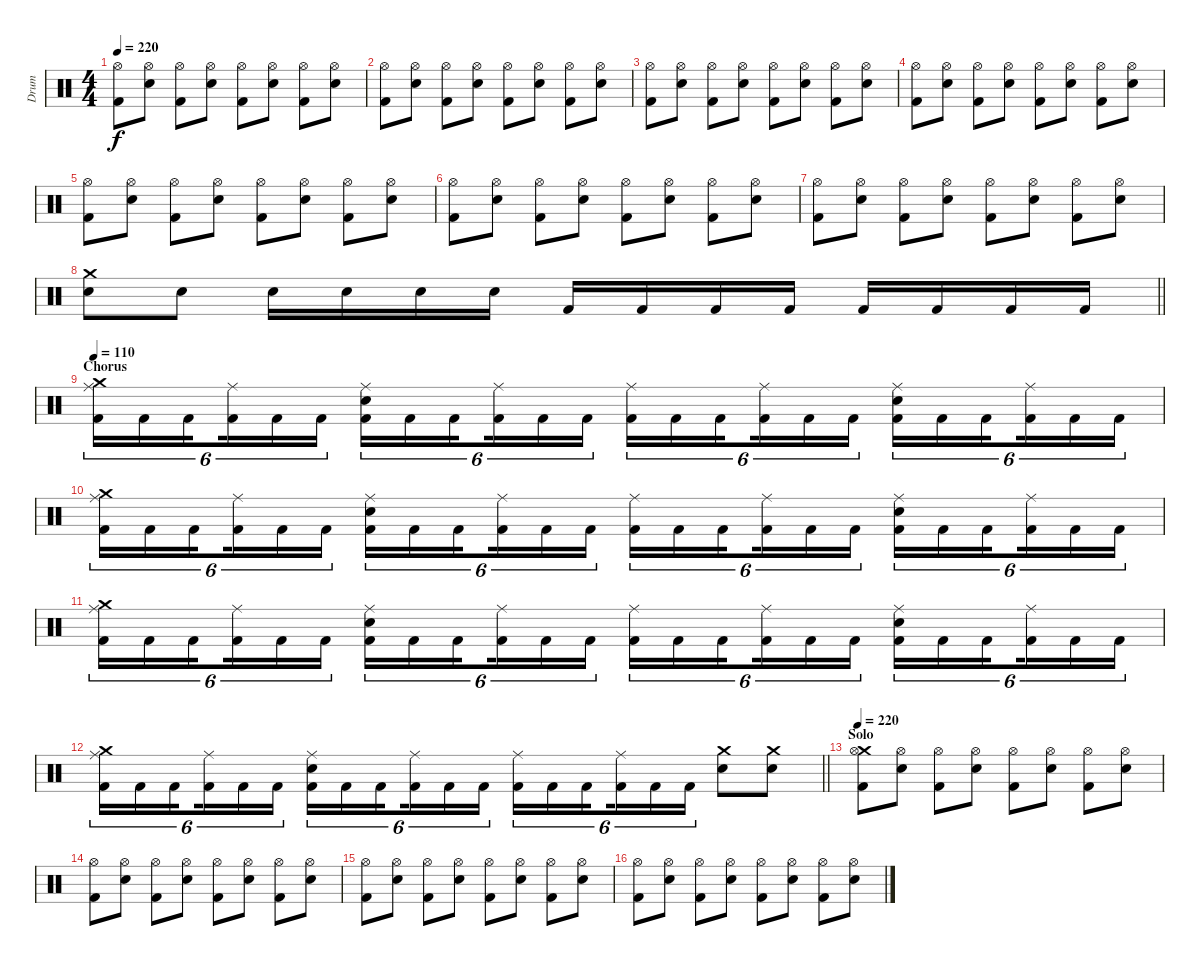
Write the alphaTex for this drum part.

\track ("Drum" "Drum") {instrument percussion}
\staff {score}
\articulation defaults
\ts (4 4)
\tempo 220
\clef neutral
\ks c
("Hi-Hat (open)" "Kick (hit) 2").8{dy f} ("Hi-Hat (open)" "Electric Snare (hit)").8 ("Hi-Hat (open)" "Kick (hit) 2").8 ("Hi-Hat (open)" "Electric Snare (hit)").8 ("Hi-Hat (open)" "Kick (hit) 2").8 ("Hi-Hat (open)" "Electric Snare (hit)").8 ("Hi-Hat (open)" "Kick (hit) 2").8 ("Hi-Hat (open)" "Electric Snare (hit)").8 |
("Hi-Hat (open)" "Kick (hit) 2").8 ("Hi-Hat (open)" "Electric Snare (hit)").8 ("Hi-Hat (open)" "Kick (hit) 2").8 ("Hi-Hat (open)" "Electric Snare (hit)").8 ("Hi-Hat (open)" "Kick (hit) 2").8 ("Hi-Hat (open)" "Electric Snare (hit)").8 ("Hi-Hat (open)" "Kick (hit) 2").8 ("Hi-Hat (open)" "Electric Snare (hit)").8 |
("Hi-Hat (open)" "Kick (hit) 2").8 ("Hi-Hat (open)" "Electric Snare (hit)").8 ("Hi-Hat (open)" "Kick (hit) 2").8 ("Hi-Hat (open)" "Electric Snare (hit)").8 ("Hi-Hat (open)" "Kick (hit) 2").8 ("Hi-Hat (open)" "Electric Snare (hit)").8 ("Hi-Hat (open)" "Kick (hit) 2").8 ("Hi-Hat (open)" "Electric Snare (hit)").8 |
("Hi-Hat (open)" "Kick (hit) 2").8 ("Hi-Hat (open)" "Electric Snare (hit)").8 ("Hi-Hat (open)" "Kick (hit) 2").8 ("Hi-Hat (open)" "Electric Snare (hit)").8 ("Hi-Hat (open)" "Kick (hit) 2").8 ("Hi-Hat (open)" "Electric Snare (hit)").8 ("Hi-Hat (open)" "Kick (hit) 2").8 ("Hi-Hat (open)" "Electric Snare (hit)").8 |
("Hi-Hat (open)" "Kick (hit) 2").8 ("Hi-Hat (open)" "Electric Snare (hit)").8 ("Hi-Hat (open)" "Kick (hit) 2").8 ("Hi-Hat (open)" "Electric Snare (hit)").8 ("Hi-Hat (open)" "Kick (hit) 2").8 ("Hi-Hat (open)" "Electric Snare (hit)").8 ("Hi-Hat (open)" "Kick (hit) 2").8 ("Hi-Hat (open)" "Electric Snare (hit)").8 |
("Hi-Hat (open)" "Kick (hit) 2").8 ("Hi-Hat (open)" "Electric Snare (hit)").8 ("Hi-Hat (open)" "Kick (hit) 2").8 ("Hi-Hat (open)" "Electric Snare (hit)").8 ("Hi-Hat (open)" "Kick (hit) 2").8 ("Hi-Hat (open)" "Electric Snare (hit)").8 ("Hi-Hat (open)" "Kick (hit) 2").8 ("Hi-Hat (open)" "Electric Snare (hit)").8 |
("Hi-Hat (open)" "Kick (hit) 2").8 ("Hi-Hat (open)" "Electric Snare (hit)").8 ("Hi-Hat (open)" "Kick (hit) 2").8 ("Hi-Hat (open)" "Electric Snare (hit)").8 ("Hi-Hat (open)" "Kick (hit) 2").8 ("Hi-Hat (open)" "Electric Snare (hit)").8 ("Hi-Hat (open)" "Kick (hit) 2").8 ("Hi-Hat (open)" "Electric Snare (hit)").8 |
\barLineRight lightlight
("Crash medium (hit)" "Electric Snare (hit)").8 "Electric Snare (hit)".8 "Electric Snare (hit)".16 "Electric Snare (hit)".16 "Electric Snare (hit)".16 "Electric Snare (hit)".16 "Kick (hit) 2".16 "Kick (hit) 2".16 "Kick (hit) 2".16 "Kick (hit) 2".16 "Kick (hit) 2".16 "Kick (hit) 2".16 "Kick (hit) 2".16 "Kick (hit) 2".16 |
\section ("" "Chorus")
\tempo 110
("Crash medium (hit)" "Ride (middle)" "Kick (hit) 2").16{tu (6 4)} "Kick (hit) 2".16{tu (6 4)} "Kick (hit) 2".16{tu (6 4) beam splitsecondary} ("Ride (middle)" "Kick (hit) 2").16{tu (6 4)} "Kick (hit) 2".16{tu (6 4)} "Kick (hit) 2".16{tu (6 4)} ("Ride (middle)" "Electric Snare (hit)" "Kick (hit) 2").16{tu (6 4)} "Kick (hit) 2".16{tu (6 4)} "Kick (hit) 2".16{tu (6 4) beam splitsecondary} ("Ride (middle)" "Kick (hit) 2").16{tu (6 4)} "Kick (hit) 2".16{tu (6 4)} "Kick (hit) 2".16{tu (6 4)} ("Ride (middle)" "Kick (hit) 2").16{tu (6 4)} "Kick (hit) 2".16{tu (6 4)} "Kick (hit) 2".16{tu (6 4) beam splitsecondary} ("Ride (middle)" "Kick (hit) 2").16{tu (6 4)} "Kick (hit) 2".16{tu (6 4)} "Kick (hit) 2".16{tu (6 4)} ("Ride (middle)" "Electric Snare (hit)" "Kick (hit) 2").16{tu (6 4)} "Kick (hit) 2".16{tu (6 4)} "Kick (hit) 2".16{tu (6 4) beam splitsecondary} ("Ride (middle)" "Kick (hit) 2").16{tu (6 4)} "Kick (hit) 2".16{tu (6 4)} "Kick (hit) 2".16{tu (6 4)} |
("Crash medium (hit)" "Ride (middle)" "Kick (hit) 2").16{tu (6 4)} "Kick (hit) 2".16{tu (6 4)} "Kick (hit) 2".16{tu (6 4) beam splitsecondary} ("Ride (middle)" "Kick (hit) 2").16{tu (6 4)} "Kick (hit) 2".16{tu (6 4)} "Kick (hit) 2".16{tu (6 4)} ("Ride (middle)" "Electric Snare (hit)" "Kick (hit) 2").16{tu (6 4)} "Kick (hit) 2".16{tu (6 4)} "Kick (hit) 2".16{tu (6 4) beam splitsecondary} ("Ride (middle)" "Kick (hit) 2").16{tu (6 4)} "Kick (hit) 2".16{tu (6 4)} "Kick (hit) 2".16{tu (6 4)} ("Ride (middle)" "Kick (hit) 2").16{tu (6 4)} "Kick (hit) 2".16{tu (6 4)} "Kick (hit) 2".16{tu (6 4) beam splitsecondary} ("Ride (middle)" "Kick (hit) 2").16{tu (6 4)} "Kick (hit) 2".16{tu (6 4)} "Kick (hit) 2".16{tu (6 4)} ("Ride (middle)" "Electric Snare (hit)" "Kick (hit) 2").16{tu (6 4)} "Kick (hit) 2".16{tu (6 4)} "Kick (hit) 2".16{tu (6 4) beam splitsecondary} ("Ride (middle)" "Kick (hit) 2").16{tu (6 4)} "Kick (hit) 2".16{tu (6 4)} "Kick (hit) 2".16{tu (6 4)} |
("Crash medium (hit)" "Ride (middle)" "Kick (hit) 2").16{tu (6 4)} "Kick (hit) 2".16{tu (6 4)} "Kick (hit) 2".16{tu (6 4) beam splitsecondary} ("Ride (middle)" "Kick (hit) 2").16{tu (6 4)} "Kick (hit) 2".16{tu (6 4)} "Kick (hit) 2".16{tu (6 4)} ("Ride (middle)" "Electric Snare (hit)" "Kick (hit) 2").16{tu (6 4)} "Kick (hit) 2".16{tu (6 4)} "Kick (hit) 2".16{tu (6 4) beam splitsecondary} ("Ride (middle)" "Kick (hit) 2").16{tu (6 4)} "Kick (hit) 2".16{tu (6 4)} "Kick (hit) 2".16{tu (6 4)} ("Ride (middle)" "Kick (hit) 2").16{tu (6 4)} "Kick (hit) 2".16{tu (6 4)} "Kick (hit) 2".16{tu (6 4) beam splitsecondary} ("Ride (middle)" "Kick (hit) 2").16{tu (6 4)} "Kick (hit) 2".16{tu (6 4)} "Kick (hit) 2".16{tu (6 4)} ("Ride (middle)" "Electric Snare (hit)" "Kick (hit) 2").16{tu (6 4)} "Kick (hit) 2".16{tu (6 4)} "Kick (hit) 2".16{tu (6 4) beam splitsecondary} ("Ride (middle)" "Kick (hit) 2").16{tu (6 4)} "Kick (hit) 2".16{tu (6 4)} "Kick (hit) 2".16{tu (6 4)} |
\barLineRight lightlight
("Crash medium (hit)" "Ride (middle)" "Kick (hit) 2").16{tu (6 4)} "Kick (hit) 2".16{tu (6 4)} "Kick (hit) 2".16{tu (6 4) beam splitsecondary} ("Ride (middle)" "Kick (hit) 2").16{tu (6 4)} "Kick (hit) 2".16{tu (6 4)} "Kick (hit) 2".16{tu (6 4)} ("Ride (middle)" "Electric Snare (hit)" "Kick (hit) 2").16{tu (6 4)} "Kick (hit) 2".16{tu (6 4)} "Kick (hit) 2".16{tu (6 4) beam splitsecondary} ("Ride (middle)" "Kick (hit) 2").16{tu (6 4)} "Kick (hit) 2".16{tu (6 4)} "Kick (hit) 2".16{tu (6 4)} ("Ride (middle)" "Kick (hit) 2").16{tu (6 4)} "Kick (hit) 2".16{tu (6 4)} "Kick (hit) 2".16{tu (6 4) beam splitsecondary} ("Ride (middle)" "Kick (hit) 2").16{tu (6 4)} "Kick (hit) 2".16{tu (6 4)} "Kick (hit) 2".16{tu (6 4)} ("Crash medium (hit)" "Electric Snare (hit)").8 ("Crash medium (hit)" "Electric Snare (hit)").8 |
\section ("" "Solo")
\tempo 220
("Crash medium (hit)" "Hi-Hat (open)" "Kick (hit) 2").8 ("Hi-Hat (open)" "Electric Snare (hit)").8 ("Hi-Hat (open)" "Kick (hit) 2").8 ("Hi-Hat (open)" "Electric Snare (hit)").8 ("Hi-Hat (open)" "Kick (hit) 2").8 ("Hi-Hat (open)" "Electric Snare (hit)").8 ("Hi-Hat (open)" "Kick (hit) 2").8 ("Hi-Hat (open)" "Electric Snare (hit)").8 |
("Hi-Hat (open)" "Kick (hit) 2").8 ("Hi-Hat (open)" "Electric Snare (hit)").8 ("Hi-Hat (open)" "Kick (hit) 2").8 ("Hi-Hat (open)" "Electric Snare (hit)").8 ("Hi-Hat (open)" "Kick (hit) 2").8 ("Hi-Hat (open)" "Electric Snare (hit)").8 ("Hi-Hat (open)" "Kick (hit) 2").8 ("Hi-Hat (open)" "Electric Snare (hit)").8 |
("Hi-Hat (open)" "Kick (hit) 2").8 ("Hi-Hat (open)" "Electric Snare (hit)").8 ("Hi-Hat (open)" "Kick (hit) 2").8 ("Hi-Hat (open)" "Electric Snare (hit)").8 ("Hi-Hat (open)" "Kick (hit) 2").8 ("Hi-Hat (open)" "Electric Snare (hit)").8 ("Hi-Hat (open)" "Kick (hit) 2").8 ("Hi-Hat (open)" "Electric Snare (hit)").8 |
("Hi-Hat (open)" "Kick (hit) 2").8 ("Hi-Hat (open)" "Electric Snare (hit)").8 ("Hi-Hat (open)" "Kick (hit) 2").8 ("Hi-Hat (open)" "Electric Snare (hit)").8 ("Hi-Hat (open)" "Kick (hit) 2").8 ("Hi-Hat (open)" "Electric Snare (hit)").8 ("Hi-Hat (open)" "Kick (hit) 2").8 ("Hi-Hat (open)" "Electric Snare (hit)").8
